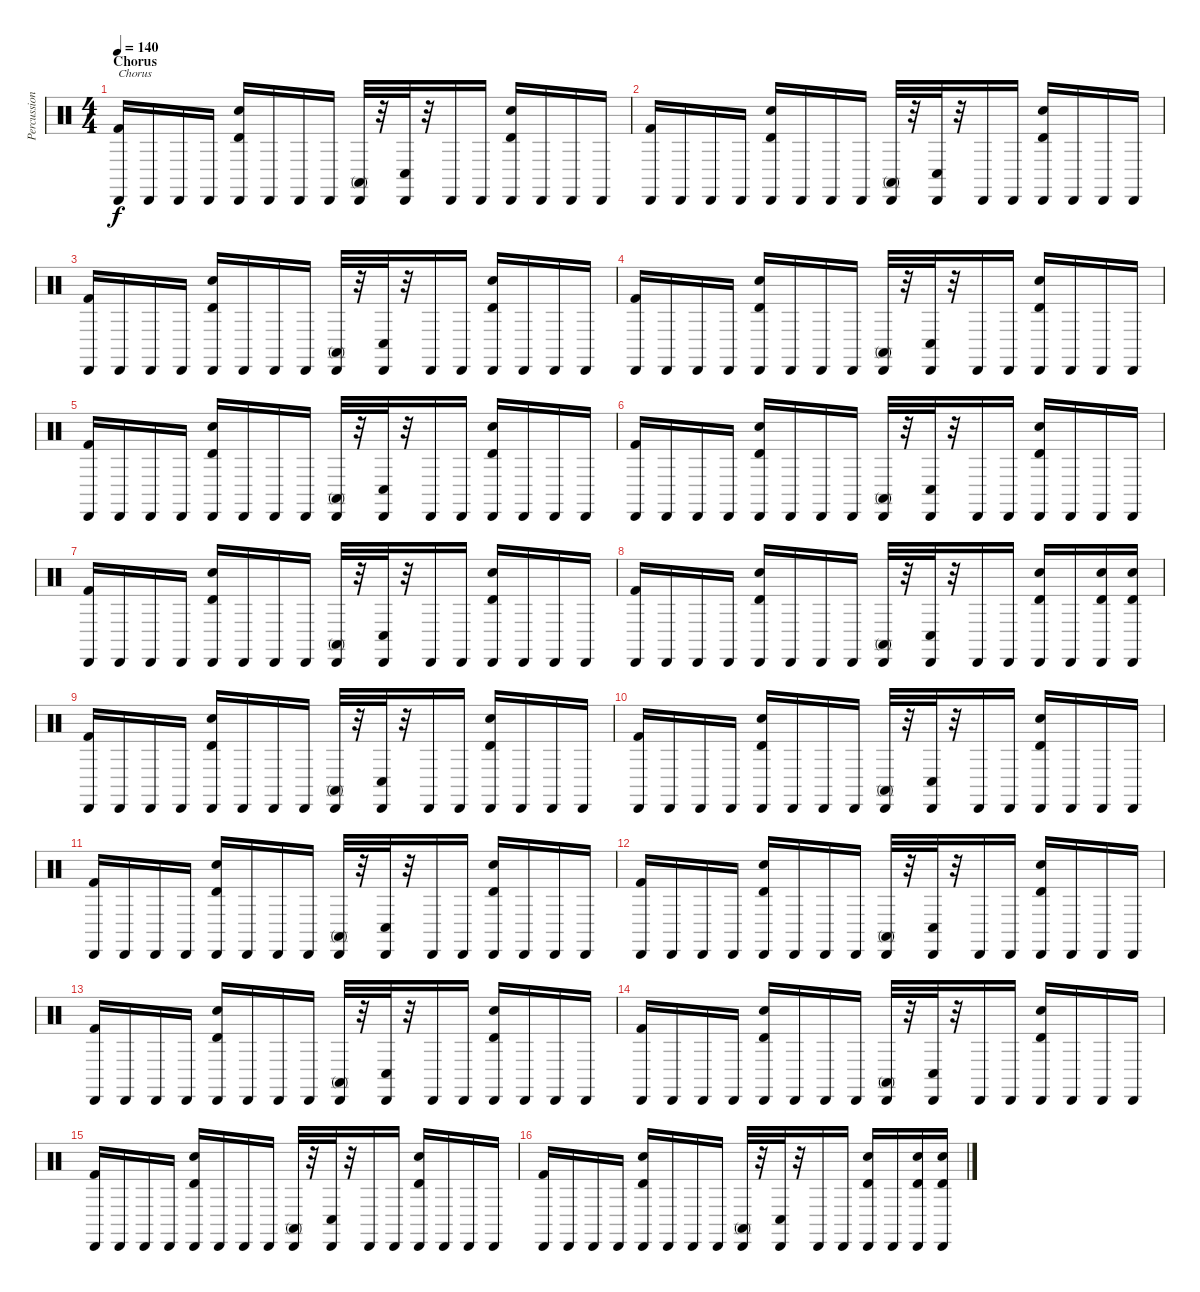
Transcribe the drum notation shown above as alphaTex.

\track ("Percussions" "Percussion") {instrument percussion}
\staff {score}
\articulation defaults
\ts (4 4)
\section ("" "Chorus")
\tempo 140
\clef neutral
\ks c
("Kick (hit) 2" "Cabasa (hit)").16{txt "Chorus" dy f} "Cabasa (hit)".16 "Cabasa (hit)".16 "Cabasa (hit)".16 ("Timbale high (hit)" "Electric Snare (hit)" "Cabasa (hit)").16 "Cabasa (hit)".16 "Cabasa (hit)".16 "Cabasa (hit)".16 ("Conga high (mute)" "Cabasa (hit)").32 r.32 ("Conga low (hit)" "Cabasa (hit)").32 r.32 "Cabasa (hit)".16 "Cabasa (hit)".16 ("Electric Snare (hit)" "Timbale high (hit)" "Cabasa (hit)").16 "Cabasa (hit)".16 "Cabasa (hit)".16 "Cabasa (hit)".16 |
("Kick (hit) 2" "Cabasa (hit)").16 "Cabasa (hit)".16 "Cabasa (hit)".16 "Cabasa (hit)".16 ("Timbale high (hit)" "Electric Snare (hit)" "Cabasa (hit)").16 "Cabasa (hit)".16 "Cabasa (hit)".16 "Cabasa (hit)".16 ("Conga high (mute)" "Cabasa (hit)").32 r.32 ("Conga low (hit)" "Cabasa (hit)").32 r.32 "Cabasa (hit)".16 "Cabasa (hit)".16 ("Electric Snare (hit)" "Timbale high (hit)" "Cabasa (hit)").16 "Cabasa (hit)".16 "Cabasa (hit)".16 "Cabasa (hit)".16 |
("Kick (hit) 2" "Cabasa (hit)").16 "Cabasa (hit)".16 "Cabasa (hit)".16 "Cabasa (hit)".16 ("Timbale high (hit)" "Electric Snare (hit)" "Cabasa (hit)").16 "Cabasa (hit)".16 "Cabasa (hit)".16 "Cabasa (hit)".16 ("Conga high (mute)" "Cabasa (hit)").32 r.32 ("Conga low (hit)" "Cabasa (hit)").32 r.32 "Cabasa (hit)".16 "Cabasa (hit)".16 ("Electric Snare (hit)" "Timbale high (hit)" "Cabasa (hit)").16 "Cabasa (hit)".16 "Cabasa (hit)".16 "Cabasa (hit)".16 |
("Kick (hit) 2" "Cabasa (hit)").16 "Cabasa (hit)".16 "Cabasa (hit)".16 "Cabasa (hit)".16 ("Timbale high (hit)" "Electric Snare (hit)" "Cabasa (hit)").16 "Cabasa (hit)".16 "Cabasa (hit)".16 "Cabasa (hit)".16 ("Conga high (mute)" "Cabasa (hit)").32 r.32 ("Conga low (hit)" "Cabasa (hit)").32 r.32 "Cabasa (hit)".16 "Cabasa (hit)".16 ("Electric Snare (hit)" "Timbale high (hit)" "Cabasa (hit)").16 "Cabasa (hit)".16 "Cabasa (hit)".16 "Cabasa (hit)".16 |
("Kick (hit) 2" "Cabasa (hit)").16 "Cabasa (hit)".16 "Cabasa (hit)".16 "Cabasa (hit)".16 ("Timbale high (hit)" "Electric Snare (hit)" "Cabasa (hit)").16 "Cabasa (hit)".16 "Cabasa (hit)".16 "Cabasa (hit)".16 ("Conga high (mute)" "Cabasa (hit)").32 r.32 ("Conga low (hit)" "Cabasa (hit)").32 r.32 "Cabasa (hit)".16 "Cabasa (hit)".16 ("Electric Snare (hit)" "Timbale high (hit)" "Cabasa (hit)").16 "Cabasa (hit)".16 "Cabasa (hit)".16 "Cabasa (hit)".16 |
("Kick (hit) 2" "Cabasa (hit)").16 "Cabasa (hit)".16 "Cabasa (hit)".16 "Cabasa (hit)".16 ("Timbale high (hit)" "Electric Snare (hit)" "Cabasa (hit)").16 "Cabasa (hit)".16 "Cabasa (hit)".16 "Cabasa (hit)".16 ("Conga high (mute)" "Cabasa (hit)").32 r.32 ("Conga low (hit)" "Cabasa (hit)").32 r.32 "Cabasa (hit)".16 "Cabasa (hit)".16 ("Electric Snare (hit)" "Timbale high (hit)" "Cabasa (hit)").16 "Cabasa (hit)".16 "Cabasa (hit)".16 "Cabasa (hit)".16 |
("Kick (hit) 2" "Cabasa (hit)").16 "Cabasa (hit)".16 "Cabasa (hit)".16 "Cabasa (hit)".16 ("Timbale high (hit)" "Electric Snare (hit)" "Cabasa (hit)").16 "Cabasa (hit)".16 "Cabasa (hit)".16 "Cabasa (hit)".16 ("Conga high (mute)" "Cabasa (hit)").32 r.32 ("Conga low (hit)" "Cabasa (hit)").32 r.32 "Cabasa (hit)".16 "Cabasa (hit)".16 ("Electric Snare (hit)" "Timbale high (hit)" "Cabasa (hit)").16 "Cabasa (hit)".16 "Cabasa (hit)".16 "Cabasa (hit)".16 |
("Kick (hit) 2" "Cabasa (hit)").16 "Cabasa (hit)".16 "Cabasa (hit)".16 "Cabasa (hit)".16 ("Timbale high (hit)" "Electric Snare (hit)" "Cabasa (hit)").16 "Cabasa (hit)".16 "Cabasa (hit)".16 "Cabasa (hit)".16 ("Conga high (mute)" "Cabasa (hit)").32 r.32 ("Conga low (hit)" "Cabasa (hit)").32 r.32 "Cabasa (hit)".16 "Cabasa (hit)".16 ("Electric Snare (hit)" "Timbale high (hit)" "Cabasa (hit)").16 "Cabasa (hit)".16 ("Timbale high (hit)" "Electric Snare (hit)" "Cabasa (hit)").16 ("Timbale high (hit)" "Electric Snare (hit)" "Cabasa (hit)").16 |
("Kick (hit) 2" "Cabasa (hit)").16 "Cabasa (hit)".16 "Cabasa (hit)".16 "Cabasa (hit)".16 ("Timbale high (hit)" "Electric Snare (hit)" "Cabasa (hit)").16 "Cabasa (hit)".16 "Cabasa (hit)".16 "Cabasa (hit)".16 ("Conga high (mute)" "Cabasa (hit)").32 r.32 ("Conga low (hit)" "Cabasa (hit)").32 r.32 "Cabasa (hit)".16 "Cabasa (hit)".16 ("Electric Snare (hit)" "Timbale high (hit)" "Cabasa (hit)").16 "Cabasa (hit)".16 "Cabasa (hit)".16 "Cabasa (hit)".16 |
("Kick (hit) 2" "Cabasa (hit)").16 "Cabasa (hit)".16 "Cabasa (hit)".16 "Cabasa (hit)".16 ("Timbale high (hit)" "Electric Snare (hit)" "Cabasa (hit)").16 "Cabasa (hit)".16 "Cabasa (hit)".16 "Cabasa (hit)".16 ("Conga high (mute)" "Cabasa (hit)").32 r.32 ("Conga low (hit)" "Cabasa (hit)").32 r.32 "Cabasa (hit)".16 "Cabasa (hit)".16 ("Electric Snare (hit)" "Timbale high (hit)" "Cabasa (hit)").16 "Cabasa (hit)".16 "Cabasa (hit)".16 "Cabasa (hit)".16 |
("Kick (hit) 2" "Cabasa (hit)").16 "Cabasa (hit)".16 "Cabasa (hit)".16 "Cabasa (hit)".16 ("Timbale high (hit)" "Electric Snare (hit)" "Cabasa (hit)").16 "Cabasa (hit)".16 "Cabasa (hit)".16 "Cabasa (hit)".16 ("Conga high (mute)" "Cabasa (hit)").32 r.32 ("Conga low (hit)" "Cabasa (hit)").32 r.32 "Cabasa (hit)".16 "Cabasa (hit)".16 ("Electric Snare (hit)" "Timbale high (hit)" "Cabasa (hit)").16 "Cabasa (hit)".16 "Cabasa (hit)".16 "Cabasa (hit)".16 |
("Kick (hit) 2" "Cabasa (hit)").16 "Cabasa (hit)".16 "Cabasa (hit)".16 "Cabasa (hit)".16 ("Timbale high (hit)" "Electric Snare (hit)" "Cabasa (hit)").16 "Cabasa (hit)".16 "Cabasa (hit)".16 "Cabasa (hit)".16 ("Conga high (mute)" "Cabasa (hit)").32 r.32 ("Conga low (hit)" "Cabasa (hit)").32 r.32 "Cabasa (hit)".16 "Cabasa (hit)".16 ("Electric Snare (hit)" "Timbale high (hit)" "Cabasa (hit)").16 "Cabasa (hit)".16 "Cabasa (hit)".16 "Cabasa (hit)".16 |
("Kick (hit) 2" "Cabasa (hit)").16 "Cabasa (hit)".16 "Cabasa (hit)".16 "Cabasa (hit)".16 ("Timbale high (hit)" "Electric Snare (hit)" "Cabasa (hit)").16 "Cabasa (hit)".16 "Cabasa (hit)".16 "Cabasa (hit)".16 ("Conga high (mute)" "Cabasa (hit)").32 r.32 ("Conga low (hit)" "Cabasa (hit)").32 r.32 "Cabasa (hit)".16 "Cabasa (hit)".16 ("Electric Snare (hit)" "Timbale high (hit)" "Cabasa (hit)").16 "Cabasa (hit)".16 "Cabasa (hit)".16 "Cabasa (hit)".16 |
("Kick (hit) 2" "Cabasa (hit)").16 "Cabasa (hit)".16 "Cabasa (hit)".16 "Cabasa (hit)".16 ("Timbale high (hit)" "Electric Snare (hit)" "Cabasa (hit)").16 "Cabasa (hit)".16 "Cabasa (hit)".16 "Cabasa (hit)".16 ("Conga high (mute)" "Cabasa (hit)").32 r.32 ("Conga low (hit)" "Cabasa (hit)").32 r.32 "Cabasa (hit)".16 "Cabasa (hit)".16 ("Electric Snare (hit)" "Timbale high (hit)" "Cabasa (hit)").16 "Cabasa (hit)".16 "Cabasa (hit)".16 "Cabasa (hit)".16 |
("Kick (hit) 2" "Cabasa (hit)").16 "Cabasa (hit)".16 "Cabasa (hit)".16 "Cabasa (hit)".16 ("Timbale high (hit)" "Electric Snare (hit)" "Cabasa (hit)").16 "Cabasa (hit)".16 "Cabasa (hit)".16 "Cabasa (hit)".16 ("Conga high (mute)" "Cabasa (hit)").32 r.32 ("Conga low (hit)" "Cabasa (hit)").32 r.32 "Cabasa (hit)".16 "Cabasa (hit)".16 ("Electric Snare (hit)" "Timbale high (hit)" "Cabasa (hit)").16 "Cabasa (hit)".16 "Cabasa (hit)".16 "Cabasa (hit)".16 |
("Kick (hit) 2" "Cabasa (hit)").16 "Cabasa (hit)".16 "Cabasa (hit)".16 "Cabasa (hit)".16 ("Timbale high (hit)" "Electric Snare (hit)" "Cabasa (hit)").16 "Cabasa (hit)".16 "Cabasa (hit)".16 "Cabasa (hit)".16 ("Conga high (mute)" "Cabasa (hit)").32 r.32 ("Conga low (hit)" "Cabasa (hit)").32 r.32 "Cabasa (hit)".16 "Cabasa (hit)".16 ("Electric Snare (hit)" "Timbale high (hit)" "Cabasa (hit)").16 "Cabasa (hit)".16 ("Electric Snare (hit)" "Timbale high (hit)" "Cabasa (hit)").16 ("Electric Snare (hit)" "Timbale high (hit)" "Cabasa (hit)").16
